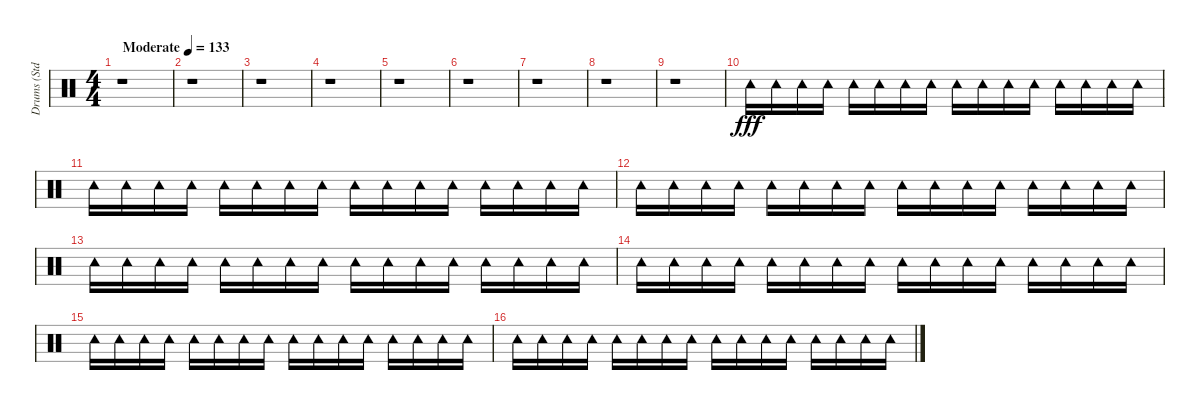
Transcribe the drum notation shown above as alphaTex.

\track ("Drums (Std.)" "Drums (Std") {instrument percussion}
\staff {score}
\articulation defaults
\ts (4 4)
\tempo (133 "Moderate")
\clef neutral
\ks c
r.1{dy fff} |
r.1 |
r.1 |
r.1 |
r.1 |
r.1 |
r.1 |
r.1 |
r.1 |
"Tambourine (hit)".16 "Tambourine (hit)".16 "Tambourine (hit)".16 "Tambourine (hit)".16 "Tambourine (hit)".16 "Tambourine (hit)".16 "Tambourine (hit)".16 "Tambourine (hit)".16 "Tambourine (hit)".16 "Tambourine (hit)".16 "Tambourine (hit)".16 "Tambourine (hit)".16 "Tambourine (hit)".16 "Tambourine (hit)".16 "Tambourine (hit)".16 "Tambourine (hit)".16 |
"Tambourine (hit)".16 "Tambourine (hit)".16 "Tambourine (hit)".16 "Tambourine (hit)".16 "Tambourine (hit)".16 "Tambourine (hit)".16 "Tambourine (hit)".16 "Tambourine (hit)".16 "Tambourine (hit)".16 "Tambourine (hit)".16 "Tambourine (hit)".16 "Tambourine (hit)".16 "Tambourine (hit)".16 "Tambourine (hit)".16 "Tambourine (hit)".16 "Tambourine (hit)".16 |
"Tambourine (hit)".16 "Tambourine (hit)".16 "Tambourine (hit)".16 "Tambourine (hit)".16 "Tambourine (hit)".16 "Tambourine (hit)".16 "Tambourine (hit)".16 "Tambourine (hit)".16 "Tambourine (hit)".16 "Tambourine (hit)".16 "Tambourine (hit)".16 "Tambourine (hit)".16 "Tambourine (hit)".16 "Tambourine (hit)".16 "Tambourine (hit)".16 "Tambourine (hit)".16 |
"Tambourine (hit)".16 "Tambourine (hit)".16 "Tambourine (hit)".16 "Tambourine (hit)".16 "Tambourine (hit)".16 "Tambourine (hit)".16 "Tambourine (hit)".16 "Tambourine (hit)".16 "Tambourine (hit)".16 "Tambourine (hit)".16 "Tambourine (hit)".16 "Tambourine (hit)".16 "Tambourine (hit)".16 "Tambourine (hit)".16 "Tambourine (hit)".16 "Tambourine (hit)".16 |
"Tambourine (hit)".16 "Tambourine (hit)".16 "Tambourine (hit)".16 "Tambourine (hit)".16 "Tambourine (hit)".16 "Tambourine (hit)".16 "Tambourine (hit)".16 "Tambourine (hit)".16 "Tambourine (hit)".16 "Tambourine (hit)".16 "Tambourine (hit)".16 "Tambourine (hit)".16 "Tambourine (hit)".16 "Tambourine (hit)".16 "Tambourine (hit)".16 "Tambourine (hit)".16 |
"Tambourine (hit)".16 "Tambourine (hit)".16 "Tambourine (hit)".16 "Tambourine (hit)".16 "Tambourine (hit)".16 "Tambourine (hit)".16 "Tambourine (hit)".16 "Tambourine (hit)".16 "Tambourine (hit)".16 "Tambourine (hit)".16 "Tambourine (hit)".16 "Tambourine (hit)".16 "Tambourine (hit)".16 "Tambourine (hit)".16 "Tambourine (hit)".16 "Tambourine (hit)".16 |
"Tambourine (hit)".16 "Tambourine (hit)".16 "Tambourine (hit)".16 "Tambourine (hit)".16 "Tambourine (hit)".16 "Tambourine (hit)".16 "Tambourine (hit)".16 "Tambourine (hit)".16 "Tambourine (hit)".16 "Tambourine (hit)".16 "Tambourine (hit)".16 "Tambourine (hit)".16 "Tambourine (hit)".16 "Tambourine (hit)".16 "Tambourine (hit)".16 "Tambourine (hit)".16
